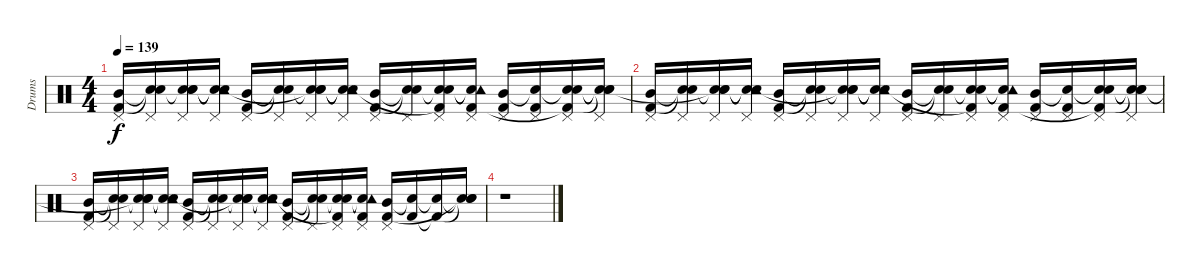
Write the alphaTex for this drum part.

\track ("Drums" "Drums") {instrument percussion}
\staff {score}
\articulation defaults
\ts (4 4)
\tempo 139
\clef neutral
\ks c
("Mid Tom (hit)" "Pedal Hi-Hat (hit)" "Kick (hit) 2").16{dy f} ("Snare (hit)"{t} "Pedal Hi-Hat (hit)" "Snare (hit)"{t}).16 ("Snare (hit)"{t} "Snare (hit) 2" "Pedal Hi-Hat (hit)" "Snare (hit)"{t}).16 ("Snare (hit)"{t} "Tambourine (hit)"{t} "Pedal Hi-Hat (hit)" "Snare (hit)"{t}).16 ("Mid Tom (hit)" "Pedal Hi-Hat (hit)" "Kick (hit) 2").16 ("Snare (hit)"{t} "Pedal Hi-Hat (hit)" "Snare (hit)"{t}).16 ("Snare (hit)"{t} "Snare (hit) 2" "Pedal Hi-Hat (hit)" "Snare (hit)"{t}).16 ("Snare (hit)"{t} "Tambourine (hit)"{t} "Pedal Hi-Hat (hit)" "Snare (hit)"{t}).16 ("Mid Tom (hit)" "Pedal Hi-Hat (hit)" "Kick (hit) 2").16 ("Snare (hit)"{t} "Pedal Hi-Hat (hit)" "Snare (hit)"{t}).16 ("Snare (hit)"{t} "Snare (hit) 2" "Pedal Hi-Hat (hit)" "Kick (hit) 2"{t}).16 ("Snare (hit)"{t} "Tambourine (hit)"{t} "Pedal Hi-Hat (hit)" "Kick (hit) 2").16 ("Mid Tom (hit)" "Pedal Hi-Hat (hit)" "Kick (hit) 2").16 ("Snare (hit)"{t} "Pedal Hi-Hat (hit)" "Kick (hit) 2").16 ("Snare (hit)"{t} "Snare (hit) 2" "Pedal Hi-Hat (hit)" "Kick (hit) 2"{t}).16 ("Snare (hit)"{t} "Snare (hit)"{t} "Pedal Hi-Hat (hit)" "Snare (hit)"{t}).16 |
("Mid Tom (hit)" "Pedal Hi-Hat (hit)" "Kick (hit) 2").16 ("Snare (hit)"{t} "Pedal Hi-Hat (hit)" "Snare (hit)"{t}).16 ("Snare (hit)"{t} "Snare (hit) 2" "Pedal Hi-Hat (hit)" "Snare (hit)"{t}).16 ("Snare (hit)"{t} "Tambourine (hit)"{t} "Pedal Hi-Hat (hit)" "Snare (hit)"{t}).16 ("Mid Tom (hit)" "Pedal Hi-Hat (hit)" "Kick (hit) 2").16 ("Snare (hit)"{t} "Pedal Hi-Hat (hit)" "Snare (hit)"{t}).16 ("Snare (hit)"{t} "Snare (hit) 2" "Pedal Hi-Hat (hit)" "Snare (hit)"{t}).16 ("Snare (hit)"{t} "Tambourine (hit)"{t} "Pedal Hi-Hat (hit)" "Snare (hit)"{t}).16 ("Mid Tom (hit)" "Pedal Hi-Hat (hit)" "Kick (hit) 2").16 ("Snare (hit)"{t} "Pedal Hi-Hat (hit)" "Snare (hit)"{t}).16 ("Snare (hit)"{t} "Snare (hit) 2" "Pedal Hi-Hat (hit)" "Kick (hit) 2"{t}).16 ("Snare (hit)"{t} "Tambourine (hit)"{t} "Pedal Hi-Hat (hit)" "Kick (hit) 2").16 ("Mid Tom (hit)" "Pedal Hi-Hat (hit)" "Kick (hit) 2").16 ("Snare (hit)"{t} "Pedal Hi-Hat (hit)" "Kick (hit) 2").16 ("Snare (hit)"{t} "Snare (hit) 2" "Pedal Hi-Hat (hit)" "Kick (hit) 2"{t}).16 ("Snare (hit)"{t} "Snare (hit)"{t} "Pedal Hi-Hat (hit)" "Snare (hit)"{t}).16 |
("Mid Tom (hit)" "Pedal Hi-Hat (hit)" "Kick (hit) 2").16 ("Snare (hit)"{t} "Pedal Hi-Hat (hit)" "Snare (hit)"{t}).16 ("Snare (hit)"{t} "Snare (hit) 2" "Pedal Hi-Hat (hit)" "Snare (hit)"{t}).16 ("Snare (hit)"{t} "Tambourine (hit)"{t} "Pedal Hi-Hat (hit)" "Snare (hit)"{t}).16 ("Mid Tom (hit)" "Pedal Hi-Hat (hit)" "Kick (hit) 2").16 ("Snare (hit)"{t} "Pedal Hi-Hat (hit)" "Snare (hit)"{t}).16 ("Snare (hit)"{t} "Snare (hit) 2" "Pedal Hi-Hat (hit)" "Snare (hit)"{t}).16 ("Snare (hit)"{t} "Tambourine (hit)"{t} "Pedal Hi-Hat (hit)" "Snare (hit)"{t}).16 ("Mid Tom (hit)" "Pedal Hi-Hat (hit)" "Kick (hit) 2").16 ("Snare (hit)"{t} "Pedal Hi-Hat (hit)" "Snare (hit)"{t}).16 ("Snare (hit)"{t} "Snare (hit) 2" "Pedal Hi-Hat (hit)" "Kick (hit) 2"{t}).16 ("Snare (hit)"{t} "Tambourine (hit)"{t} "Pedal Hi-Hat (hit)" "Kick (hit) 2").16 ("Mid Tom (hit)" "Pedal Hi-Hat (hit)" "Kick (hit) 2").16 ("Snare (hit)"{t} "Kick (hit) 2").16 ("Snare (hit)"{t} "Kick (hit) 2"{t}).16 ("Snare (hit)"{t} "Snare (hit)"{t} "Snare (hit)"{t}).16 |
r.1
